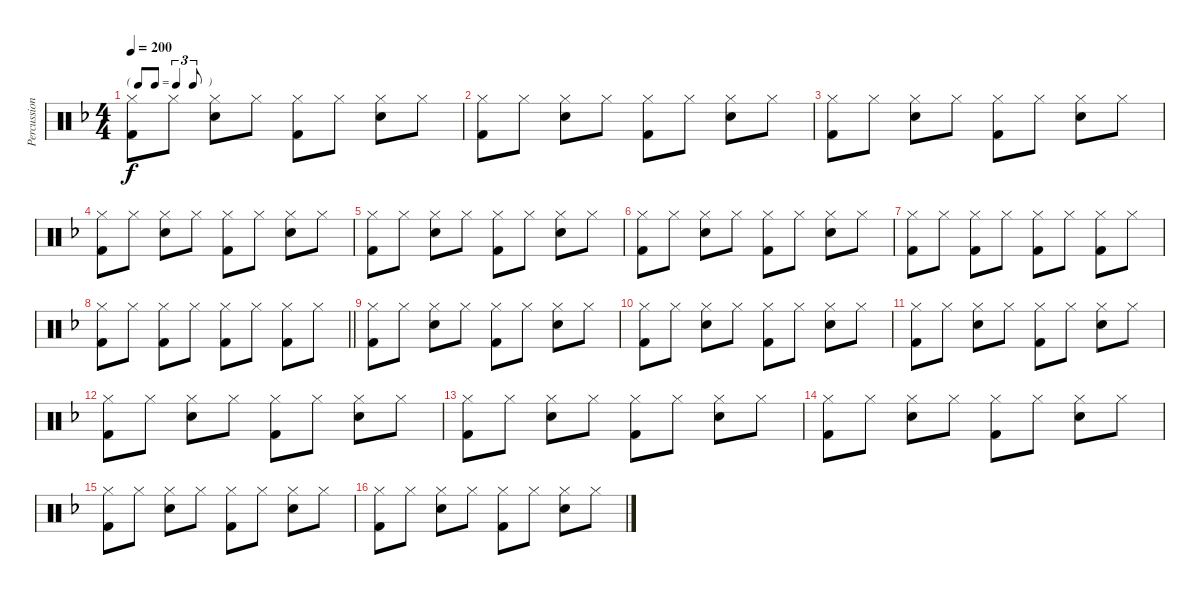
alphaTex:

\track ("Percussion" "Percussion") {instrument percussion}
\staff {score}
\articulation defaults
\ts (4 4)
\tf triplet8th
\tempo 200
\clef neutral
\ks f
("Hi-Hat (closed)" "Kick (hit) 2").8{dy f} "Hi-Hat (closed)".8 ("Hi-Hat (closed)" "Electric Snare (hit)").8 "Hi-Hat (closed)".8 ("Hi-Hat (closed)" "Kick (hit) 2").8 "Hi-Hat (closed)".8 ("Hi-Hat (closed)" "Electric Snare (hit)").8 "Hi-Hat (closed)".8 |
("Hi-Hat (closed)" "Kick (hit) 2").8 "Hi-Hat (closed)".8 ("Hi-Hat (closed)" "Electric Snare (hit)").8 "Hi-Hat (closed)".8 ("Hi-Hat (closed)" "Kick (hit) 2").8 "Hi-Hat (closed)".8 ("Hi-Hat (closed)" "Electric Snare (hit)").8 "Hi-Hat (closed)".8 |
("Hi-Hat (closed)" "Kick (hit) 2").8 "Hi-Hat (closed)".8 ("Hi-Hat (closed)" "Electric Snare (hit)").8 "Hi-Hat (closed)".8 ("Hi-Hat (closed)" "Kick (hit) 2").8 "Hi-Hat (closed)".8 ("Hi-Hat (closed)" "Electric Snare (hit)").8 "Hi-Hat (closed)".8 |
("Hi-Hat (closed)" "Kick (hit) 2").8 "Hi-Hat (closed)".8 ("Hi-Hat (closed)" "Electric Snare (hit)").8 "Hi-Hat (closed)".8 ("Hi-Hat (closed)" "Kick (hit) 2").8 "Hi-Hat (closed)".8 ("Hi-Hat (closed)" "Electric Snare (hit)").8 "Hi-Hat (closed)".8 |
("Hi-Hat (closed)" "Kick (hit) 2").8 "Hi-Hat (closed)".8 ("Hi-Hat (closed)" "Electric Snare (hit)").8 "Hi-Hat (closed)".8 ("Hi-Hat (closed)" "Kick (hit) 2").8 "Hi-Hat (closed)".8 ("Hi-Hat (closed)" "Electric Snare (hit)").8 "Hi-Hat (closed)".8 |
("Hi-Hat (closed)" "Kick (hit) 2").8 "Hi-Hat (closed)".8 ("Hi-Hat (closed)" "Electric Snare (hit)").8 "Hi-Hat (closed)".8 ("Hi-Hat (closed)" "Kick (hit) 2").8 "Hi-Hat (closed)".8 ("Hi-Hat (closed)" "Electric Snare (hit)").8 "Hi-Hat (closed)".8 |
("Hi-Hat (closed)" "Kick (hit) 2").8 "Hi-Hat (closed)".8 ("Hi-Hat (closed)" "Kick (hit) 2").8 "Hi-Hat (closed)".8 ("Hi-Hat (closed)" "Kick (hit) 2").8 "Hi-Hat (closed)".8 ("Hi-Hat (closed)" "Kick (hit) 2").8 "Hi-Hat (closed)".8 |
\barLineRight lightlight
("Hi-Hat (closed)" "Kick (hit) 2").8 "Hi-Hat (closed)".8 ("Hi-Hat (closed)" "Kick (hit) 2").8 "Hi-Hat (closed)".8 ("Hi-Hat (closed)" "Kick (hit) 2").8 "Hi-Hat (closed)".8 ("Hi-Hat (closed)" "Kick (hit) 2").8 "Hi-Hat (closed)".8 |
("Hi-Hat (closed)" "Kick (hit) 2").8 "Hi-Hat (closed)".8 ("Hi-Hat (closed)" "Electric Snare (hit)").8 "Hi-Hat (closed)".8 ("Hi-Hat (closed)" "Kick (hit) 2").8 "Hi-Hat (closed)".8 ("Hi-Hat (closed)" "Electric Snare (hit)").8 "Hi-Hat (closed)".8 |
("Hi-Hat (closed)" "Kick (hit) 2").8 "Hi-Hat (closed)".8 ("Hi-Hat (closed)" "Electric Snare (hit)").8 "Hi-Hat (closed)".8 ("Hi-Hat (closed)" "Kick (hit) 2").8 "Hi-Hat (closed)".8 ("Hi-Hat (closed)" "Electric Snare (hit)").8 "Hi-Hat (closed)".8 |
("Hi-Hat (closed)" "Kick (hit) 2").8 "Hi-Hat (closed)".8 ("Hi-Hat (closed)" "Electric Snare (hit)").8 "Hi-Hat (closed)".8 ("Hi-Hat (closed)" "Kick (hit) 2").8 "Hi-Hat (closed)".8 ("Hi-Hat (closed)" "Electric Snare (hit)").8 "Hi-Hat (closed)".8 |
("Hi-Hat (closed)" "Kick (hit) 2").8 "Hi-Hat (closed)".8 ("Hi-Hat (closed)" "Electric Snare (hit)").8 "Hi-Hat (closed)".8 ("Hi-Hat (closed)" "Kick (hit) 2").8 "Hi-Hat (closed)".8 ("Hi-Hat (closed)" "Electric Snare (hit)").8 "Hi-Hat (closed)".8 |
("Hi-Hat (closed)" "Kick (hit) 2").8 "Hi-Hat (closed)".8 ("Hi-Hat (closed)" "Electric Snare (hit)").8 "Hi-Hat (closed)".8 ("Hi-Hat (closed)" "Kick (hit) 2").8 "Hi-Hat (closed)".8 ("Hi-Hat (closed)" "Electric Snare (hit)").8 "Hi-Hat (closed)".8 |
("Hi-Hat (closed)" "Kick (hit) 2").8 "Hi-Hat (closed)".8 ("Hi-Hat (closed)" "Electric Snare (hit)").8 "Hi-Hat (closed)".8 ("Hi-Hat (closed)" "Kick (hit) 2").8 "Hi-Hat (closed)".8 ("Hi-Hat (closed)" "Electric Snare (hit)").8 "Hi-Hat (closed)".8 |
("Hi-Hat (closed)" "Kick (hit) 2").8 "Hi-Hat (closed)".8 ("Hi-Hat (closed)" "Electric Snare (hit)").8 "Hi-Hat (closed)".8 ("Hi-Hat (closed)" "Kick (hit) 2").8 "Hi-Hat (closed)".8 ("Hi-Hat (closed)" "Electric Snare (hit)").8 "Hi-Hat (closed)".8 |
("Hi-Hat (closed)" "Kick (hit) 2").8 "Hi-Hat (closed)".8 ("Hi-Hat (closed)" "Electric Snare (hit)").8 "Hi-Hat (closed)".8 ("Hi-Hat (closed)" "Kick (hit) 2").8 "Hi-Hat (closed)".8 ("Hi-Hat (closed)" "Electric Snare (hit)").8 "Hi-Hat (closed)".8
